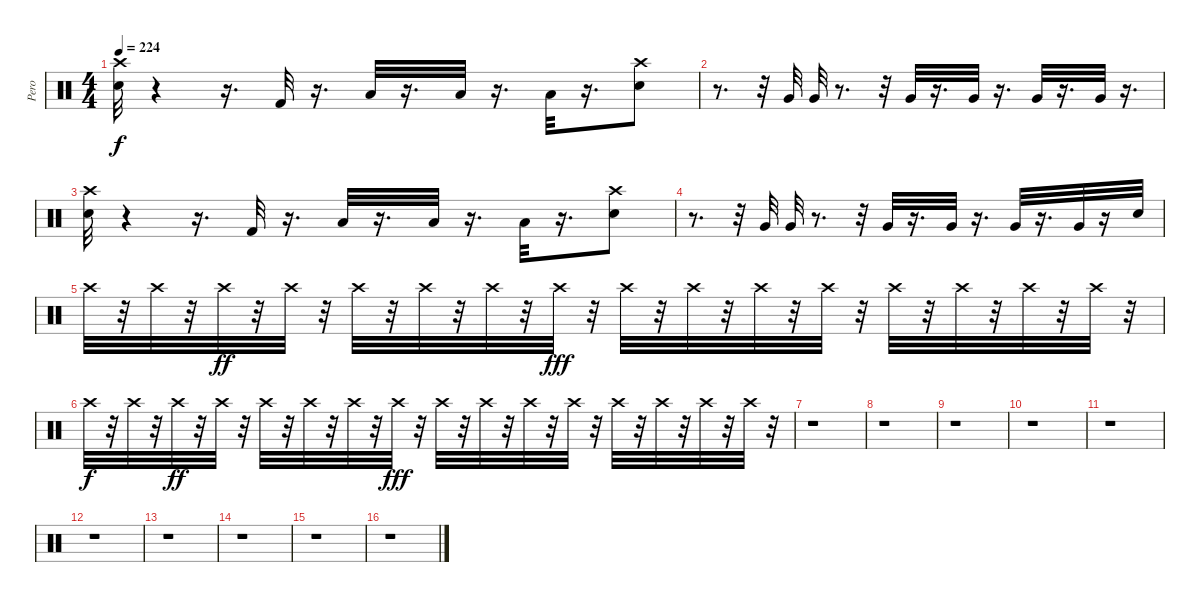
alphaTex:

\track ("Pero" "Pero") {instrument percussion}
\staff {score}
\articulation defaults
\ts (4 4)
\tempo 224
\clef neutral
\ks c
("Crash high (hit)" "Snare (hit) 2").32{dy f} r.4 r.16{d} "Kick (hit) 2".32 r.16{d} "Low Tom (hit)".32 r.16{d} "Low Tom (hit)".32 r.16{d} "Low Tom (hit)".32 r.16{d} ("Crash high (hit)" "Snare (hit) 2").8 |
r.8{d} r.32 "Very Low Tom (hit)".32 "Very Low Tom (hit)".32 r.8{d} r.32 "Very Low Tom (hit)".32 r.16{d} "Very Low Tom (hit)".32 r.16{d} "Very Low Tom (hit)".32 r.16{d} "Very Low Tom (hit)".32 r.16{d} |
("Crash high (hit)" "Snare (hit) 2").32 r.4 r.16{d} "Kick (hit) 2".32 r.16{d} "Low Tom (hit)".32 r.16{d} "Low Tom (hit)".32 r.16{d} "Low Tom (hit)".32 r.16{d} ("Crash high (hit)" "Snare (hit) 2").8 |
r.8{d} r.32 "Very Low Tom (hit)".32 "Very Low Tom (hit)".32 r.8{d} r.32 "Very Low Tom (hit)".32 r.16{d} "Very Low Tom (hit)".32 r.16{d} "Very Low Tom (hit)".32 r.16{d} "Very Low Tom (hit)".32 r.16 "Snare (hit) 2".32 |
"Crash high (hit)".32{volume 8} r.32 "Crash high (hit)".32{volume 4} r.32 "Crash high (hit)".32{dy ff volume 5} r.32 "Crash high (hit)".32{volume 5} r.32 "Crash high (hit)".32{volume 6} r.32 "Crash high (hit)".32{volume 6} r.32 "Crash high (hit)".32{volume 7} r.32 "Crash high (hit)".32{dy fff volume 7} r.32 "Crash high (hit)".32{volume 8} r.32 "Crash high (hit)".32{volume 8} r.32 "Crash high (hit)".32{volume 9} r.32 "Crash high (hit)".32{volume 9} r.32 "Crash high (hit)".32{volume 10} r.32 "Crash high (hit)".32{volume 10} r.32 "Crash high (hit)".32{volume 11} r.32 "Crash high (hit)".32{volume 11} r.32 |
"Crash high (hit)".32{dy f volume 12} r.32 "Crash high (hit)".32{volume 12} r.32 "Crash high (hit)".32{dy ff volume 13} r.32 "Crash high (hit)".32{volume 13} r.32 "Crash high (hit)".32{volume 14} r.32 "Crash high (hit)".32{volume 14} r.32 "Crash high (hit)".32{volume 15} r.32 "Crash high (hit)".32{dy fff volume 15} r.32 "Crash high (hit)".32{volume 16} r.32 "Crash high (hit)".32{volume 16} r.32 "Crash high (hit)".32{volume 16} r.32 "Crash high (hit)".32{volume 16} r.32 "Crash high (hit)".32{volume 16} r.32 "Crash high (hit)".32{volume 16} r.32 "Crash high (hit)".32{volume 16} r.32 "Crash high (hit)".32{volume 16} r.32 |
r.1 |
r.1 |
r.1 |
r.1 |
r.1 |
r.1 |
r.1 |
r.1 |
r.1 |
r.1
